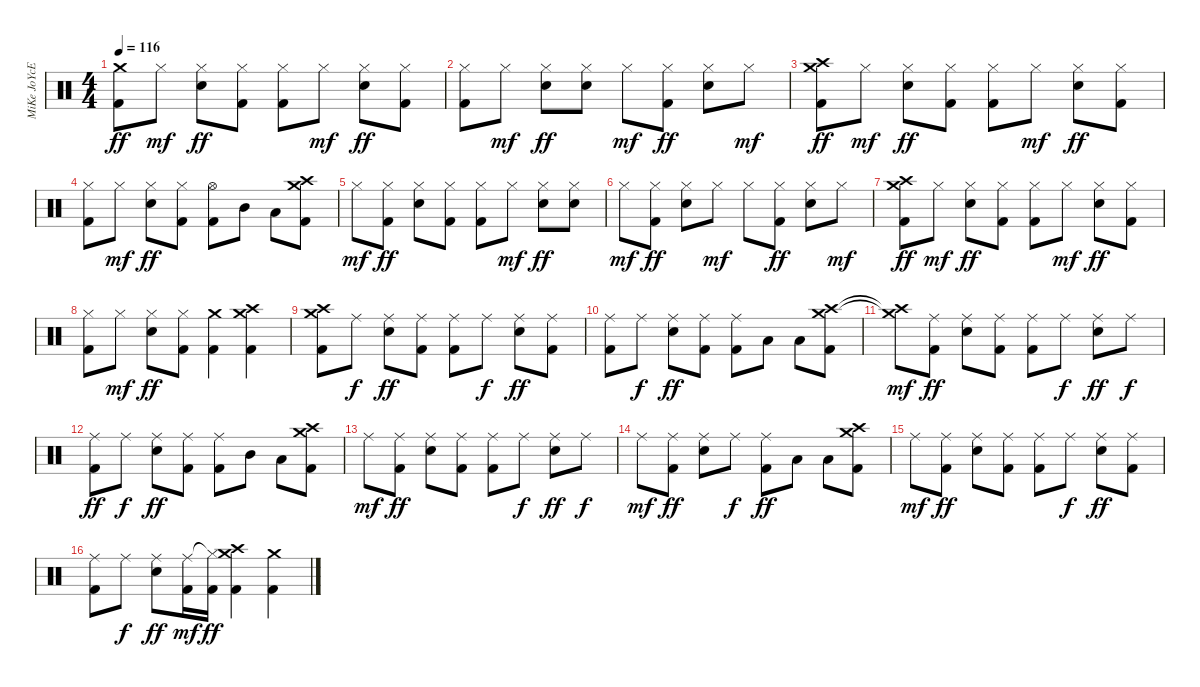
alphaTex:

\track ("MiKe JoYcE" "MiKe JoYcE") {instrument percussion}
\staff {score}
\articulation defaults
\ts (4 4)
\tempo 116
\clef neutral
\ks c
("Crash medium (hit)" "Kick (hit) 2").8{dy ff} "Hi-Hat (closed)".8{dy mf} ("Hi-Hat (closed)" "Electric Snare (hit)").8{dy ff} ("Hi-Hat (closed)" "Kick (hit) 2").8 ("Hi-Hat (closed)" "Kick (hit) 2").8 "Hi-Hat (closed)".8{dy mf} ("Hi-Hat (closed)" "Electric Snare (hit)").8{dy ff} ("Hi-Hat (closed)" "Kick (hit) 2").8 |
("Hi-Hat (closed)" "Kick (hit) 2").8 "Hi-Hat (closed)".8{dy mf} ("Hi-Hat (closed)" "Electric Snare (hit)").8{dy ff} ("Hi-Hat (closed)" "Electric Snare (hit)").8 "Hi-Hat (closed)".8{dy mf} ("Hi-Hat (closed)" "Kick (hit) 2").8{dy ff} ("Hi-Hat (closed)" "Electric Snare (hit)").8 "Hi-Hat (closed)".8{dy mf} |
("Crash medium (hit)" "Crash high (hit)" "Kick (hit) 2").8{dy ff} "Hi-Hat (closed)".8{dy mf} ("Hi-Hat (closed)" "Electric Snare (hit)").8{dy ff} ("Hi-Hat (closed)" "Kick (hit) 2").8 ("Hi-Hat (closed)" "Kick (hit) 2").8 "Hi-Hat (closed)".8{dy mf} ("Hi-Hat (closed)" "Electric Snare (hit)").8{dy ff} ("Hi-Hat (closed)" "Kick (hit) 2").8 |
("Hi-Hat (closed)" "Kick (hit) 2").8 "Hi-Hat (closed)".8{dy mf} ("Hi-Hat (closed)" "Electric Snare (hit)").8{dy ff} ("Hi-Hat (closed)" "Kick (hit) 2").8 ("Hi-Hat (open)" "Kick (hit) 2").8 "Mid Tom (hit)".8 "Low Floor Tom (hit)".8 ("Crash high (hit)" "Crash medium (hit)" "Kick (hit) 2").8 |
"Hi-Hat (closed)".8{dy mf} ("Hi-Hat (closed)" "Kick (hit) 2").8{dy ff} ("Hi-Hat (closed)" "Electric Snare (hit)").8 ("Hi-Hat (closed)" "Kick (hit) 2").8 ("Hi-Hat (closed)" "Kick (hit) 2").8 "Hi-Hat (closed)".8{dy mf} ("Hi-Hat (closed)" "Electric Snare (hit)").8{dy ff} ("Hi-Hat (closed)" "Electric Snare (hit)").8 |
"Hi-Hat (closed)".8{dy mf} ("Hi-Hat (closed)" "Kick (hit) 2").8{dy ff} ("Hi-Hat (closed)" "Electric Snare (hit)").8 "Hi-Hat (closed)".8{dy mf} "Hi-Hat (closed)".8 ("Hi-Hat (closed)" "Kick (hit) 2").8{dy ff} ("Hi-Hat (closed)" "Electric Snare (hit)").8 "Hi-Hat (closed)".8{dy mf} |
("Crash medium (hit)" "Crash high (hit)" "Kick (hit) 2").8{dy ff} "Hi-Hat (closed)".8{dy mf} ("Hi-Hat (closed)" "Electric Snare (hit)").8{dy ff} ("Hi-Hat (closed)" "Kick (hit) 2").8 ("Hi-Hat (closed)" "Kick (hit) 2").8 "Hi-Hat (closed)".8{dy mf} ("Hi-Hat (closed)" "Electric Snare (hit)").8{dy ff} ("Hi-Hat (closed)" "Kick (hit) 2").8 |
("Hi-Hat (closed)" "Kick (hit) 2").8 "Hi-Hat (closed)".8{dy mf} ("Hi-Hat (closed)" "Electric Snare (hit)").8{dy ff} ("Hi-Hat (closed)" "Kick (hit) 2").8 ("Crash medium (hit)" "Kick (hit) 2").4 ("Crash medium (hit)" "Crash high (hit)" "Kick (hit) 2").4 |
("Crash high (hit)" "Crash medium (hit)" "Kick (hit) 2").8 "Ride (middle)".8{dy f} ("Ride (middle)" "Electric Snare (hit)").8{dy ff} ("Ride (middle)" "Kick (hit) 2").8 ("Ride (middle)" "Kick (hit) 2").8 "Ride (middle)".8{dy f} ("Ride (middle)" "Electric Snare (hit)").8{dy ff} ("Ride (middle)" "Kick (hit) 2").8 |
("Ride (middle)" "Kick (hit) 2").8 "Ride (middle)".8{dy f} ("Ride (middle)" "Electric Snare (hit)").8{dy ff} ("Ride (middle)" "Kick (hit) 2").8 ("Ride (middle)" "Kick (hit) 2").8 "Low Tom (hit)".8 "Low Floor Tom (hit)".8 ("Crash high (hit)" "Crash medium (hit)" "Kick (hit) 2").8 |
("Crash high (hit)"{t} "Crash medium (hit)"{t}).8{dy mf} ("Ride (middle)" "Kick (hit) 2").8{dy ff} ("Ride (middle)" "Electric Snare (hit)").8 ("Ride (middle)" "Kick (hit) 2").8 ("Ride (middle)" "Kick (hit) 2").8 "Ride (middle)".8{dy f} ("Ride (middle)" "Electric Snare (hit)").8{dy ff} "Ride (middle)".8{dy f} |
("Ride (middle)" "Kick (hit) 2").8{dy ff} "Ride (middle)".8{dy f} ("Ride (middle)" "Electric Snare (hit)").8{dy ff} ("Ride (middle)" "Kick (hit) 2").8 ("Ride (middle)" "Kick (hit) 2").8 "Mid Tom (hit)".8 "Low Tom (hit)".8 ("Crash high (hit)" "Crash medium (hit)" "Kick (hit) 2").8 |
"Ride (middle)".8{dy mf} ("Ride (middle)" "Kick (hit) 2").8{dy ff} ("Ride (middle)" "Electric Snare (hit)").8 ("Ride (middle)" "Kick (hit) 2").8 ("Ride (middle)" "Kick (hit) 2").8 "Ride (middle)".8{dy f} ("Ride (middle)" "Electric Snare (hit)").8{dy ff} "Ride (middle)".8{dy f} |
"Ride (middle)".8{dy mf} ("Ride (middle)" "Kick (hit) 2").8{dy ff} ("Ride (middle)" "Electric Snare (hit)").8 "Ride (middle)".8{dy f} ("Ride (middle)" "Kick (hit) 2").8{dy ff} "Low Tom (hit)".8 "Low Tom (hit)".8 ("Crash high (hit)" "Crash medium (hit)" "Kick (hit) 2").8 |
"Ride (middle)".8{dy mf} ("Ride (middle)" "Kick (hit) 2").8{dy ff} ("Ride (middle)" "Electric Snare (hit)").8 ("Ride (middle)" "Kick (hit) 2").8 ("Ride (middle)" "Kick (hit) 2").8 "Ride (middle)".8{dy f} ("Ride (middle)" "Electric Snare (hit)").8{dy ff} ("Ride (middle)" "Kick (hit) 2").8 |
("Ride (middle)" "Kick (hit) 2").8 "Ride (middle)".8{dy f} ("Ride (middle)" "Electric Snare (hit)").8{dy ff} ("Ride (middle)" "Kick (hit) 2").16{dy mf} ("Hi-Hat (closed)"{t} "Kick (hit) 2").16{dy ff} ("Crash high (hit)" "Crash medium (hit)" "Kick (hit) 2").4 ("Crash medium (hit)" "Kick (hit) 2").4
